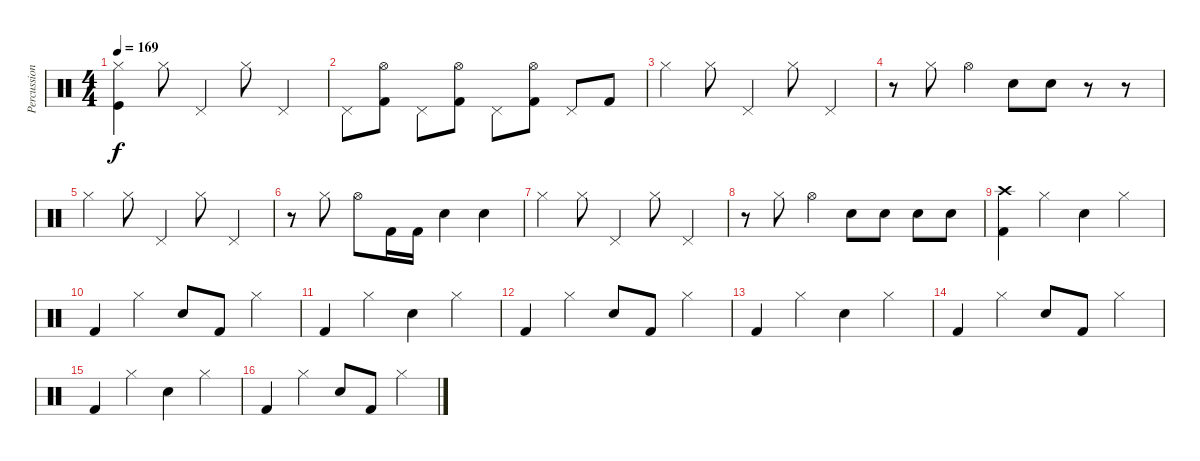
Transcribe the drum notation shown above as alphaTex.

\track ("Percussion" "Percussion") {instrument percussion}
\staff {score}
\articulation defaults
\ts (4 4)
\tempo 169
\clef neutral
\ks c
("Kick (hit)" "Hi-Hat (closed)").4{dy f} "Hi-Hat (closed)".8 "Pedal Hi-Hat (hit)".4 "Hi-Hat (closed)".8 "Pedal Hi-Hat (hit)".4 |
"Pedal Hi-Hat (hit)".8 ("Hi-Hat (open)" "Kick (hit) 2").8 "Pedal Hi-Hat (hit)".8 ("Hi-Hat (open)" "Kick (hit) 2").8 "Pedal Hi-Hat (hit)".8 ("Hi-Hat (open)" "Kick (hit) 2").8 "Pedal Hi-Hat (hit)".8 "Kick (hit) 2".8 |
"Hi-Hat (closed)".4 "Hi-Hat (closed)".8 "Pedal Hi-Hat (hit)".4 "Hi-Hat (closed)".8 "Pedal Hi-Hat (hit)".4 |
r.8 "Hi-Hat (closed)".8 "Hi-Hat (open)".4 "Snare (hit) 2".8 "Snare (hit) 2".8 r.8 r.8 |
"Hi-Hat (closed)".4 "Hi-Hat (closed)".8 "Pedal Hi-Hat (hit)".4 "Hi-Hat (closed)".8 "Pedal Hi-Hat (hit)".4 |
r.8 "Hi-Hat (closed)".8 "Hi-Hat (open)".8 "Kick (hit) 2".16 "Kick (hit) 2".16 "Snare (hit) 2".4 "Snare (hit) 2".4 |
"Hi-Hat (closed)".4 "Hi-Hat (closed)".8 "Pedal Hi-Hat (hit)".4 "Hi-Hat (closed)".8 "Pedal Hi-Hat (hit)".4 |
r.8 "Hi-Hat (closed)".8 "Hi-Hat (open)".4 "Snare (hit) 2".8 "Snare (hit) 2".8 "Snare (hit) 2".8 "Snare (hit) 2".8 |
("Crash high (hit)" "Kick (hit) 2").4 "Hi-Hat (closed)".4 "Snare (hit) 2".4 "Hi-Hat (closed)".4 |
"Kick (hit) 2".4 "Hi-Hat (closed)".4 "Snare (hit) 2".8 "Kick (hit) 2".8 "Hi-Hat (closed)".4 |
"Kick (hit) 2".4 "Hi-Hat (closed)".4 "Snare (hit) 2".4 "Hi-Hat (closed)".4 |
"Kick (hit) 2".4 "Hi-Hat (closed)".4 "Snare (hit) 2".8 "Kick (hit) 2".8 "Hi-Hat (closed)".4 |
"Kick (hit) 2".4 "Hi-Hat (closed)".4 "Snare (hit) 2".4 "Hi-Hat (closed)".4 |
"Kick (hit) 2".4 "Hi-Hat (closed)".4 "Snare (hit) 2".8 "Kick (hit) 2".8 "Hi-Hat (closed)".4 |
"Kick (hit) 2".4 "Hi-Hat (closed)".4 "Snare (hit) 2".4 "Hi-Hat (closed)".4 |
"Kick (hit) 2".4 "Hi-Hat (closed)".4 "Snare (hit) 2".8 "Kick (hit) 2".8 "Hi-Hat (closed)".4
